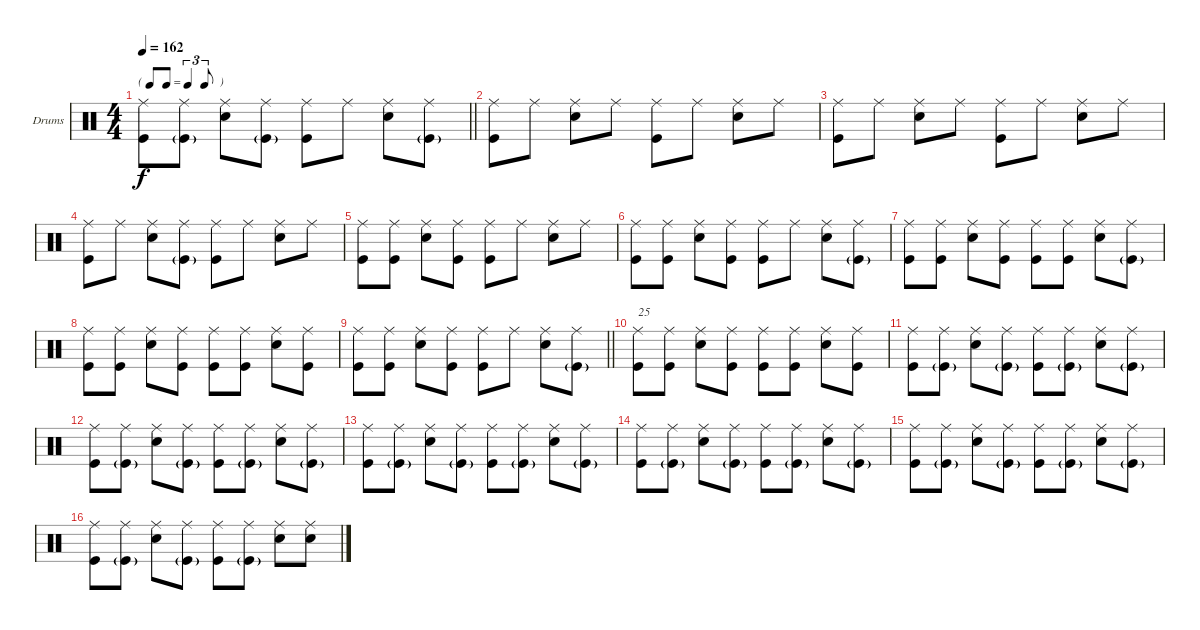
\bracketExtendMode groupsimilarinstruments
\firstSystemTrackNameOrientation horizontal
\otherSystemsTrackNameOrientation horizontal
\track ("Drumkit" "Drums") {instrument percussion}
\staff {score}
\articulation defaults
\ts (4 4)
\tf triplet8th
\tempo 162
\clef neutral
\barLineRight lightlight
\ks c
("Kick (hit)" "Ride (middle)").8{dy f} ("Kick (hit)"{g} "Ride (middle)").8 ("Snare (hit) 2" "Ride (middle)").8 ("Kick (hit)"{g} "Ride (middle)").8 ("Kick (hit)" "Ride (middle)").8 "Ride (middle)".8 ("Snare (hit) 2" "Ride (middle)").8 ("Kick (hit)"{g} "Ride (middle)").8 |
("Kick (hit)" "Ride (middle)").8 "Ride (middle)".8 ("Snare (hit) 2" "Ride (middle)").8 "Ride (middle)".8 ("Kick (hit)" "Ride (middle)").8 "Ride (middle)".8 ("Snare (hit) 2" "Ride (middle)").8 "Ride (middle)".8 |
("Kick (hit)" "Ride (middle)").8 "Ride (middle)".8 ("Snare (hit) 2" "Ride (middle)").8 "Ride (middle)".8 ("Kick (hit)" "Ride (middle)").8 "Ride (middle)".8 ("Snare (hit) 2" "Ride (middle)").8 "Ride (middle)".8 |
("Kick (hit)" "Ride (middle)").8 "Ride (middle)".8 ("Snare (hit) 2" "Ride (middle)").8 ("Kick (hit)"{g} "Ride (middle)").8 ("Kick (hit)" "Ride (middle)").8 "Ride (middle)".8 ("Snare (hit) 2" "Ride (middle)").8 "Ride (middle)".8 |
("Kick (hit)" "Ride (middle)").8 ("Kick (hit)" "Ride (middle)").8 ("Snare (hit) 2" "Ride (middle)").8 ("Kick (hit)" "Ride (middle)").8 ("Kick (hit)" "Ride (middle)").8 "Ride (middle)".8 ("Snare (hit) 2" "Ride (middle)").8 "Ride (middle)".8 |
("Kick (hit)" "Ride (middle)").8 ("Kick (hit)" "Ride (middle)").8 ("Snare (hit) 2" "Ride (middle)").8 ("Kick (hit)" "Ride (middle)").8 ("Kick (hit)" "Ride (middle)").8 "Ride (middle)".8 ("Snare (hit) 2" "Ride (middle)").8 ("Kick (hit)"{g} "Ride (middle)").8 |
("Kick (hit)" "Ride (middle)").8 ("Kick (hit)" "Ride (middle)").8 ("Snare (hit) 2" "Ride (middle)").8 ("Kick (hit)" "Ride (middle)").8 ("Kick (hit)" "Ride (middle)").8 ("Kick (hit)" "Ride (middle)").8 ("Snare (hit) 2" "Ride (middle)").8 ("Kick (hit)"{g} "Ride (middle)").8 |
("Kick (hit)" "Ride (middle)").8 ("Kick (hit)" "Ride (middle)").8 ("Snare (hit) 2" "Ride (middle)").8 ("Kick (hit)" "Ride (middle)").8 ("Kick (hit)" "Ride (middle)").8 ("Kick (hit)" "Ride (middle)").8 ("Snare (hit) 2" "Ride (middle)").8 ("Kick (hit)" "Ride (middle)").8 |
\barLineRight lightlight
("Kick (hit)" "Ride (middle)").8 ("Kick (hit)" "Ride (middle)").8 ("Snare (hit) 2" "Ride (middle)").8 ("Kick (hit)" "Ride (middle)").8 ("Kick (hit)" "Ride (middle)").8 "Ride (middle)".8 ("Snare (hit) 2" "Ride (middle)").8 ("Kick (hit)"{g} "Ride (middle)").8 |
("Kick (hit)" "Ride (middle)").8{txt "25"} ("Kick (hit)" "Ride (middle)").8 ("Snare (hit) 2" "Ride (middle)").8 ("Kick (hit)" "Ride (middle)").8 ("Kick (hit)" "Ride (middle)").8 ("Kick (hit)" "Ride (middle)").8 ("Snare (hit) 2" "Ride (middle)").8 ("Kick (hit)" "Ride (middle)").8 |
("Kick (hit)" "Ride (middle)").8 ("Kick (hit)"{g} "Ride (middle)").8 ("Snare (hit) 2" "Ride (middle)").8 ("Kick (hit)"{g} "Ride (middle)").8 ("Kick (hit)" "Ride (middle)").8 ("Kick (hit)"{g} "Ride (middle)").8 ("Snare (hit) 2" "Ride (middle)").8 ("Kick (hit)"{g} "Ride (middle)").8 |
("Kick (hit)" "Ride (middle)").8 ("Kick (hit)"{g} "Ride (middle)").8 ("Snare (hit) 2" "Ride (middle)").8 ("Kick (hit)"{g} "Ride (middle)").8 ("Kick (hit)" "Ride (middle)").8 ("Kick (hit)"{g} "Ride (middle)").8 ("Snare (hit) 2" "Ride (middle)").8 ("Kick (hit)"{g} "Ride (middle)").8 |
("Kick (hit)" "Ride (middle)").8 ("Kick (hit)"{g} "Ride (middle)").8 ("Snare (hit) 2" "Ride (middle)").8 ("Kick (hit)"{g} "Ride (middle)").8 ("Kick (hit)" "Ride (middle)").8 ("Kick (hit)"{g} "Ride (middle)").8 ("Snare (hit) 2" "Ride (middle)").8 ("Kick (hit)"{g} "Ride (middle)").8 |
("Kick (hit)" "Ride (middle)").8 ("Kick (hit)"{g} "Ride (middle)").8 ("Snare (hit) 2" "Ride (middle)").8 ("Kick (hit)"{g} "Ride (middle)").8 ("Kick (hit)" "Ride (middle)").8 ("Kick (hit)"{g} "Ride (middle)").8 ("Snare (hit) 2" "Ride (middle)").8 ("Kick (hit)"{g} "Ride (middle)").8 |
("Kick (hit)" "Ride (middle)").8 ("Kick (hit)"{g} "Ride (middle)").8 ("Snare (hit) 2" "Ride (middle)").8 ("Kick (hit)"{g} "Ride (middle)").8 ("Kick (hit)" "Ride (middle)").8 ("Kick (hit)"{g} "Ride (middle)").8 ("Snare (hit) 2" "Ride (middle)").8 ("Kick (hit)"{g} "Ride (middle)").8 |
("Kick (hit)" "Ride (middle)").8 ("Kick (hit)"{g} "Ride (middle)").8 ("Snare (hit) 2" "Ride (middle)").8 ("Kick (hit)"{g} "Ride (middle)").8 ("Kick (hit)" "Ride (middle)").8 ("Kick (hit)"{g} "Ride (middle)").8 ("Snare (hit) 2" "Ride (middle)").8 ("Snare (hit) 2" "Ride (middle)").8
